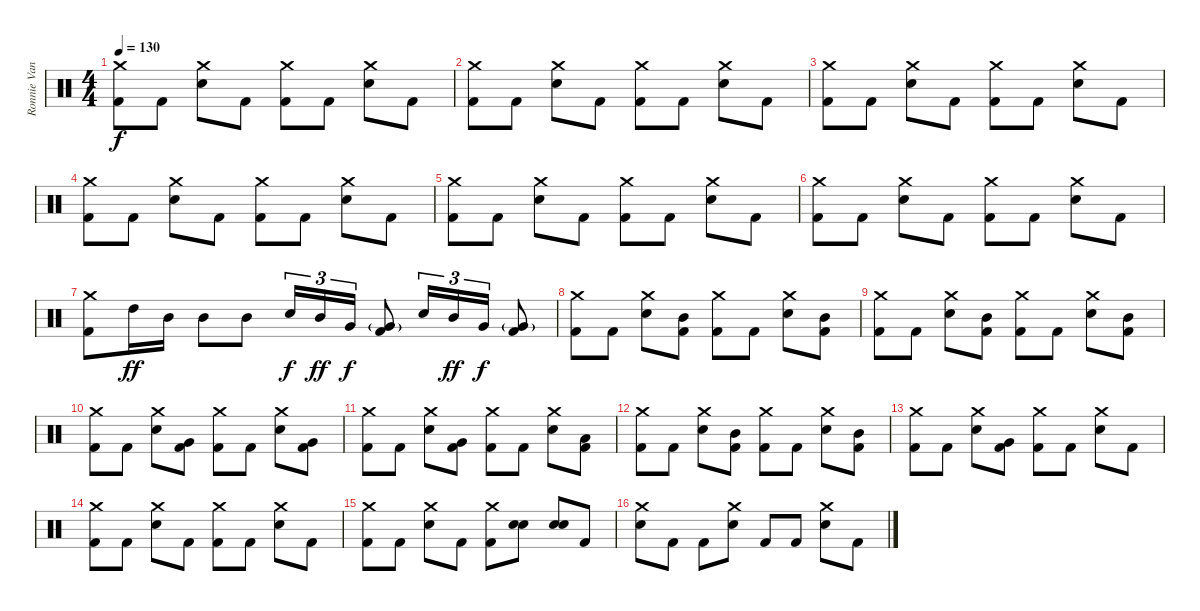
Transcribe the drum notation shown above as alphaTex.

\track ("Ronnie Vannucci Jr." "Ronnie Van") {instrument percussion}
\staff {score}
\articulation defaults
\ts (4 4)
\tempo 130
\clef neutral
\ks c
("Crash medium (hit)" "Kick (hit) 2").8{dy f} "Kick (hit) 2".8 ("Crash medium (hit)" "Electric Snare (hit)").8 "Kick (hit) 2".8 ("Crash medium (hit)" "Kick (hit) 2").8 "Kick (hit) 2".8 ("Crash medium (hit)" "Electric Snare (hit)").8 "Kick (hit) 2".8 |
("Crash medium (hit)" "Kick (hit) 2").8 "Kick (hit) 2".8 ("Crash medium (hit)" "Electric Snare (hit)").8 "Kick (hit) 2".8 ("Crash medium (hit)" "Kick (hit) 2").8 "Kick (hit) 2".8 ("Crash medium (hit)" "Electric Snare (hit)").8 "Kick (hit) 2".8 |
("Crash medium (hit)" "Kick (hit) 2").8 "Kick (hit) 2".8 ("Crash medium (hit)" "Electric Snare (hit)").8 "Kick (hit) 2".8 ("Crash medium (hit)" "Kick (hit) 2").8 "Kick (hit) 2".8 ("Crash medium (hit)" "Electric Snare (hit)").8 "Kick (hit) 2".8 |
("Crash medium (hit)" "Kick (hit) 2").8 "Kick (hit) 2".8 ("Crash medium (hit)" "Electric Snare (hit)").8 "Kick (hit) 2".8 ("Crash medium (hit)" "Kick (hit) 2").8 "Kick (hit) 2".8 ("Crash medium (hit)" "Electric Snare (hit)").8 "Kick (hit) 2".8 |
("Crash medium (hit)" "Kick (hit) 2").8 "Kick (hit) 2".8 ("Crash medium (hit)" "Electric Snare (hit)").8 "Kick (hit) 2".8 ("Crash medium (hit)" "Kick (hit) 2").8 "Kick (hit) 2".8 ("Crash medium (hit)" "Electric Snare (hit)").8 "Kick (hit) 2".8 |
("Crash medium (hit)" "Kick (hit) 2").8 "Kick (hit) 2".8 ("Crash medium (hit)" "Electric Snare (hit)").8 "Kick (hit) 2".8 ("Crash medium (hit)" "Kick (hit) 2").8 "Kick (hit) 2".8 ("Crash medium (hit)" "Electric Snare (hit)").8 "Kick (hit) 2".8 |
("Crash medium (hit)" "Kick (hit) 2").8 "High Tom (hit)".16{dy ff} "Mid Tom (hit)".16 "Mid Tom (hit)".8 "Mid Tom (hit)".8 "Electric Snare (hit)".16{tu (3 2) dy f} "Mid Tom (hit)".16{tu (3 2) dy ff} "Very Low Tom (hit)".16{tu (3 2) dy f} ("Very Low Tom (hit)"{g} "Kick (hit) 2").8 "Electric Snare (hit)".16{tu (3 2)} "Mid Tom (hit)".16{tu (3 2) dy ff} "Very Low Tom (hit)".16{tu (3 2) dy f} ("Very Low Tom (hit)"{g} "Kick (hit) 2").8 |
("Crash medium (hit)" "Kick (hit) 2").8 "Kick (hit) 2".8 ("Crash medium (hit)" "Electric Snare (hit)").8 ("Mid Tom (hit)" "Kick (hit) 2").8 ("Crash medium (hit)" "Kick (hit) 2").8 "Kick (hit) 2".8 ("Crash medium (hit)" "Electric Snare (hit)").8 ("Mid Tom (hit)" "Kick (hit) 2").8 |
("Crash medium (hit)" "Kick (hit) 2").8 "Kick (hit) 2".8 ("Crash medium (hit)" "Electric Snare (hit)").8 ("Mid Tom (hit)" "Kick (hit) 2").8 ("Crash medium (hit)" "Kick (hit) 2").8 "Kick (hit) 2".8 ("Crash medium (hit)" "Electric Snare (hit)").8 ("Mid Tom (hit)" "Kick (hit) 2").8 |
("Crash medium (hit)" "Kick (hit) 2").8 "Kick (hit) 2".8 ("Crash medium (hit)" "Electric Snare (hit)").8 ("Very Low Tom (hit)" "Kick (hit) 2").8 ("Crash medium (hit)" "Kick (hit) 2").8 "Kick (hit) 2".8 ("Crash medium (hit)" "Electric Snare (hit)").8 ("Very Low Tom (hit)" "Kick (hit) 2").8 |
("Crash medium (hit)" "Kick (hit) 2").8 "Kick (hit) 2".8 ("Crash medium (hit)" "Electric Snare (hit)").8 ("Very Low Tom (hit)" "Kick (hit) 2").8 ("Crash medium (hit)" "Kick (hit) 2").8 "Kick (hit) 2".8 ("Crash medium (hit)" "Electric Snare (hit)").8 ("Low Floor Tom (hit)" "Kick (hit) 2").8 |
("Crash medium (hit)" "Kick (hit) 2").8 "Kick (hit) 2".8 ("Crash medium (hit)" "Electric Snare (hit)").8 ("Mid Tom (hit)" "Kick (hit) 2").8 ("Crash medium (hit)" "Kick (hit) 2").8 "Kick (hit) 2".8 ("Crash medium (hit)" "Electric Snare (hit)").8 ("Mid Tom (hit)" "Kick (hit) 2").8 |
("Crash medium (hit)" "Kick (hit) 2").8 "Kick (hit) 2".8 ("Crash medium (hit)" "Electric Snare (hit)").8 ("Very Low Tom (hit)" "Kick (hit) 2").8 ("Crash medium (hit)" "Kick (hit) 2").8 "Kick (hit) 2".8 ("Crash medium (hit)" "Electric Snare (hit)").8 "Kick (hit) 2".8 |
("Crash medium (hit)" "Kick (hit) 2").8 "Kick (hit) 2".8 ("Crash medium (hit)" "Electric Snare (hit)").8 "Kick (hit) 2".8 ("Crash medium (hit)" "Kick (hit) 2").8 "Kick (hit) 2".8 ("Crash medium (hit)" "Electric Snare (hit)").8 "Kick (hit) 2".8 |
("Crash medium (hit)" "Kick (hit) 2").8 "Kick (hit) 2".8 ("Crash medium (hit)" "Electric Snare (hit)").8 "Kick (hit) 2".8 ("Crash medium (hit)" "Kick (hit) 2").8 ("Electric Snare (hit)" "Electric Snare (hit)").8{bu 120} ("Electric Snare (hit)" "Electric Snare (hit)").8{bu 120} "Kick (hit) 2".8 |
("Crash medium (hit)" "Electric Snare (hit)").8 "Kick (hit) 2".8 "Kick (hit) 2".8 ("Crash medium (hit)" "Electric Snare (hit)").8 "Kick (hit) 2".8 "Kick (hit) 2".8 ("Crash medium (hit)" "Electric Snare (hit)").8 "Kick (hit) 2".8
